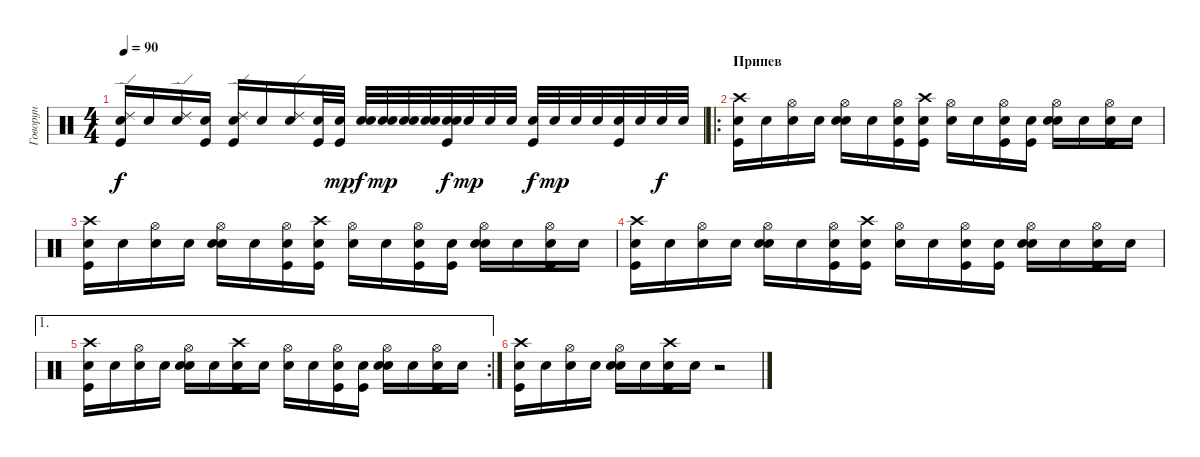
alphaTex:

\track ("Говорун" "Говорун") {instrument percussion}
\staff {score}
\articulation defaults
\ts (4 4)
\tempo 90
\clef neutral
\ks c
("Snare (hit)"{x} "Kick (hit)" "Ride (edge) 2").16{dy f} "Snare (hit)"{x}.16 ("Snare (hit)"{x} "Ride (edge) 2").16 ("Snare (hit)"{x} "Kick (hit)").16 ("Snare (hit)"{x} "Kick (hit)" "Ride (edge) 2").16 "Snare (hit)"{x}.16 ("Snare (hit)"{x} "Ride (edge) 2").16 ("Snare (hit)"{x} "Kick (hit)").32 ("Snare (hit)"{x} "Kick (hit)").32{dy mp} ("Snare (hit)"{x} "Snare (hit) 2").32{dy f} ("Snare (hit)"{x} "Snare (hit) 2").32{dy mp} ("Snare (hit)"{x} "Snare (hit) 2").32 ("Snare (hit)"{x} "Snare (hit) 2").32 ("Snare (hit)"{x} "Snare (hit) 2" "Kick (hit)").32{dy f} "Snare (hit) 2".32{dy mp} "Snare (hit) 2".32 "Snare (hit) 2".32 ("Snare (hit) 2" "Kick (hit)").32{dy f} "Snare (hit) 2".32{dy mp} "Snare (hit) 2".32 "Snare (hit) 2".32 ("Snare (hit) 2" "Kick (hit)").32 "Snare (hit) 2".32 "Snare (hit) 2".32{dy f} "Snare (hit) 2".32 |
\ro
\section ("" "Припев")
("Snare (hit)"{x} "Kick (hit)" "Crash high (hit)").16 "Snare (hit)"{x}.16 ("Snare (hit)"{x} "Hi-Hat (open)").16 "Snare (hit)"{x}.16 ("Snare (hit)"{x} "Snare (hit) 2" "Hi-Hat (open)").16 "Snare (hit)"{x}.16 ("Snare (hit)"{x} "Kick (hit)" "Hi-Hat (open)").16 ("Snare (hit)"{x} "Kick (hit)" "Crash high (hit)").16 ("Snare (hit)"{x} "Hi-Hat (open)").16 "Snare (hit)"{x}.16 ("Snare (hit)"{x} "Kick (hit)" "Hi-Hat (open)").16 ("Snare (hit)"{x} "Kick (hit)").16 ("Snare (hit)"{x} "Snare (hit) 2" "Hi-Hat (open)").16 "Snare (hit)"{x}.16 ("Snare (hit)"{x} "Kick (hit)" "Hi-Hat (open)").16 "Snare (hit)"{x}.16 |
("Snare (hit)"{x} "Kick (hit)" "Crash high (hit)").16 "Snare (hit)"{x}.16 ("Snare (hit)"{x} "Hi-Hat (open)").16 "Snare (hit)"{x}.16 ("Snare (hit)"{x} "Snare (hit) 2" "Hi-Hat (open)").16 "Snare (hit)"{x}.16 ("Snare (hit)"{x} "Kick (hit)" "Hi-Hat (open)").16 ("Snare (hit)"{x} "Kick (hit)" "Crash high (hit)").16 ("Snare (hit)"{x} "Hi-Hat (open)").16 "Snare (hit)"{x}.16 ("Snare (hit)"{x} "Kick (hit)" "Hi-Hat (open)").16 ("Snare (hit)"{x} "Kick (hit)").16 ("Snare (hit)"{x} "Snare (hit) 2" "Hi-Hat (open)").16 "Snare (hit)"{x}.16 ("Snare (hit)"{x} "Kick (hit)" "Hi-Hat (open)").16 "Snare (hit)"{x}.16 |
("Snare (hit)"{x} "Kick (hit)" "Crash high (hit)").16 "Snare (hit)"{x}.16 ("Snare (hit)"{x} "Hi-Hat (open)").16 "Snare (hit)"{x}.16 ("Snare (hit)"{x} "Snare (hit) 2" "Hi-Hat (open)").16 "Snare (hit)"{x}.16 ("Snare (hit)"{x} "Kick (hit)" "Hi-Hat (open)").16 ("Snare (hit)"{x} "Kick (hit)" "Crash high (hit)").16 ("Snare (hit)"{x} "Hi-Hat (open)").16 "Snare (hit)"{x}.16 ("Snare (hit)"{x} "Kick (hit)" "Hi-Hat (open)").16 ("Snare (hit)"{x} "Kick (hit)").16 ("Snare (hit)"{x} "Snare (hit) 2" "Hi-Hat (open)").16 "Snare (hit)"{x}.16 ("Snare (hit)"{x} "Kick (hit)" "Hi-Hat (open)").16 "Snare (hit)"{x}.16 |
\ae 1
\rc 2
("Snare (hit)"{x} "Kick (hit)" "Crash high (hit)").16 "Snare (hit)"{x}.16 ("Snare (hit)"{x} "Hi-Hat (open)").16 "Snare (hit)"{x}.16 ("Snare (hit)"{x} "Snare (hit) 2" "Hi-Hat (open)").16 "Snare (hit)"{x}.16 ("Snare (hit)"{x} "Crash high (hit)" "Kick (hit)").16 "Snare (hit)"{x}.16 ("Snare (hit)"{x} "Hi-Hat (open)").16 "Snare (hit)"{x}.16 ("Snare (hit)"{x} "Kick (hit)" "Hi-Hat (open)").16 ("Snare (hit)"{x} "Kick (hit)").16 ("Snare (hit)"{x} "Snare (hit) 2" "Hi-Hat (open)").16 "Snare (hit)"{x}.16 ("Snare (hit)"{x} "Kick (hit)" "Hi-Hat (open)").16 "Snare (hit)"{x}.16 |
("Snare (hit)"{x} "Kick (hit)" "Crash high (hit)").16 "Snare (hit)"{x}.16 ("Snare (hit)"{x} "Hi-Hat (open)").16 "Snare (hit)"{x}.16 ("Snare (hit)"{x} "Snare (hit) 2" "Hi-Hat (open)").16 "Snare (hit)"{x}.16 ("Snare (hit)"{x} "Crash high (hit)" "Kick (hit)").16 "Snare (hit)"{x}.16 r.2
